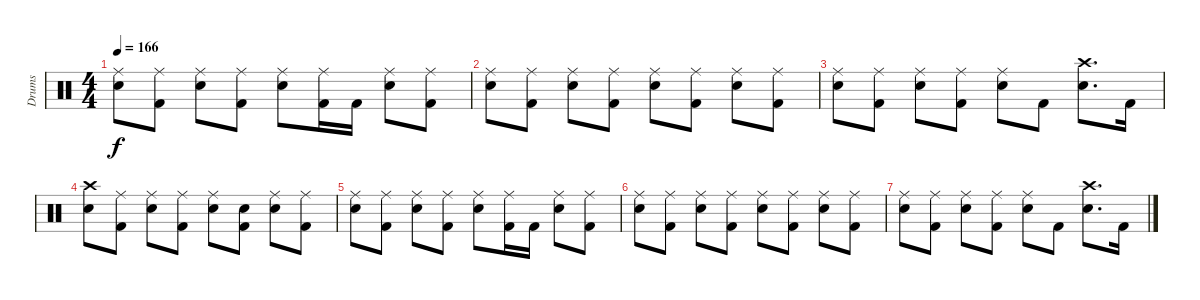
\track ("Drums" "Drums") {instrument percussion}
\staff {score}
\articulation defaults
\ts (4 4)
\tempo 166
\clef neutral
\ks c
("Ride (middle)" "Snare (hit) 2").8{dy f} ("Ride (middle)" "Kick (hit) 2").8 ("Ride (middle)" "Snare (hit) 2").8 ("Ride (middle)" "Kick (hit) 2").8 ("Ride (middle)" "Snare (hit) 2").8 ("Ride (middle)" "Kick (hit) 2").16 "Kick (hit) 2".16 ("Ride (middle)" "Snare (hit) 2").8 ("Ride (middle)" "Kick (hit) 2").8 |
("Ride (middle)" "Snare (hit) 2").8 ("Ride (middle)" "Kick (hit) 2").8 ("Ride (middle)" "Snare (hit) 2").8 ("Ride (middle)" "Kick (hit) 2").8 ("Ride (middle)" "Snare (hit) 2").8 ("Ride (middle)" "Kick (hit) 2").8 ("Ride (middle)" "Snare (hit) 2").8 ("Ride (middle)" "Kick (hit) 2").8 |
("Ride (middle)" "Snare (hit) 2").8 ("Ride (middle)" "Kick (hit) 2").8 ("Ride (middle)" "Snare (hit) 2").8 ("Ride (middle)" "Kick (hit) 2").8 ("Ride (middle)" "Snare (hit) 2").8 "Kick (hit) 2".8 ("Crash high (hit)" "Snare (hit) 2").8{d} "Kick (hit) 2".16 |
("Crash high (hit)" "Snare (hit) 2").8 ("Ride (middle)" "Kick (hit) 2").8 ("Ride (middle)" "Snare (hit) 2").8 ("Ride (middle)" "Kick (hit) 2").8 ("Ride (middle)" "Snare (hit) 2").8{volume 0} ("Snare (hit)" "Kick (hit) 2").8 ("Ride (middle)" "Snare (hit) 2").8 ("Ride (middle)" "Kick (hit) 2").8 |
("Ride (middle)" "Snare (hit) 2").8 ("Ride (middle)" "Kick (hit) 2").8 ("Ride (middle)" "Snare (hit) 2").8 ("Ride (middle)" "Kick (hit) 2").8 ("Ride (middle)" "Snare (hit) 2").8 ("Ride (middle)" "Kick (hit) 2").16 "Kick (hit) 2".16 ("Ride (middle)" "Snare (hit) 2").8 ("Ride (middle)" "Kick (hit) 2").8 |
("Ride (middle)" "Snare (hit) 2").8 ("Ride (middle)" "Kick (hit) 2").8 ("Ride (middle)" "Snare (hit) 2").8 ("Ride (middle)" "Kick (hit) 2").8 ("Ride (middle)" "Snare (hit) 2").8 ("Ride (middle)" "Kick (hit) 2").8 ("Ride (middle)" "Snare (hit) 2").8 ("Ride (middle)" "Kick (hit) 2").8 |
("Ride (middle)" "Snare (hit) 2").8 ("Ride (middle)" "Kick (hit) 2").8 ("Ride (middle)" "Snare (hit) 2").8 ("Ride (middle)" "Kick (hit) 2").8 ("Ride (middle)" "Snare (hit) 2").8 "Kick (hit) 2".8 ("Crash high (hit)" "Snare (hit) 2").8{d} "Kick (hit) 2".16
